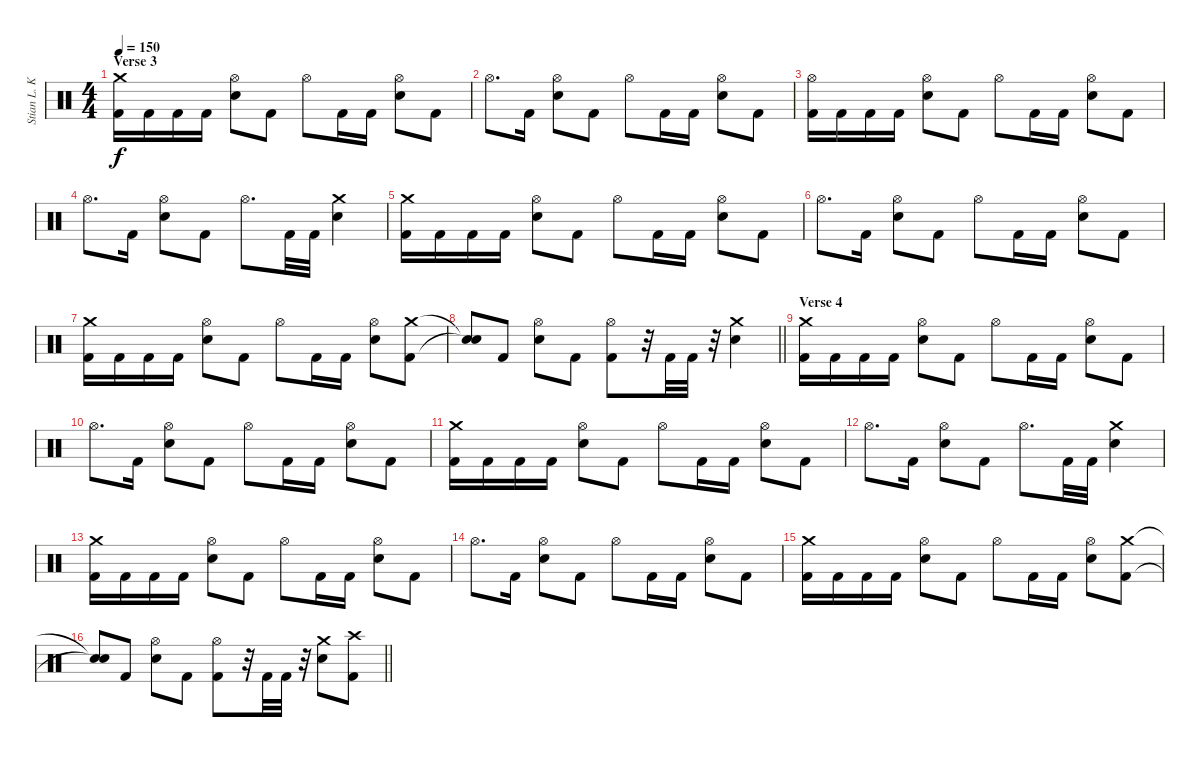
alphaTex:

\track ("Stian L. Kristoffersen" "Stian L. K") {instrument percussion}
\staff {score}
\articulation defaults
\ts (4 4)
\section ("" "Verse 3")
\tempo 150
\clef neutral
\ks c
("Crash medium (hit)" "Kick (hit) 2").16{dy f} "Kick (hit) 2".16 "Kick (hit) 2".16 "Kick (hit) 2".16 ("Hi-Hat (open)" "Electric Snare (hit)").8 "Kick (hit) 2".8 "Hi-Hat (open)".8 "Kick (hit) 2".16 "Kick (hit) 2".16 ("Hi-Hat (open)" "Electric Snare (hit)").8 "Kick (hit) 2".8 |
"Hi-Hat (open)".8{d} "Kick (hit) 2".16 ("Hi-Hat (open)" "Electric Snare (hit)").8 "Kick (hit) 2".8 "Hi-Hat (open)".8 "Kick (hit) 2".16 "Kick (hit) 2".16 ("Hi-Hat (open)" "Electric Snare (hit)").8 "Kick (hit) 2".8 |
("Hi-Hat (open)" "Kick (hit) 2").16 "Kick (hit) 2".16 "Kick (hit) 2".16 "Kick (hit) 2".16 ("Hi-Hat (open)" "Electric Snare (hit)").8 "Kick (hit) 2".8 "Hi-Hat (open)".8 "Kick (hit) 2".16 "Kick (hit) 2".16 ("Hi-Hat (open)" "Electric Snare (hit)").8 "Kick (hit) 2".8 |
"Hi-Hat (open)".8{d} "Kick (hit) 2".16 ("Hi-Hat (open)" "Electric Snare (hit)").8 "Kick (hit) 2".8 "Hi-Hat (open)".8{d} "Kick (hit) 2".32 "Kick (hit) 2".32 ("Crash medium (hit)" "Electric Snare (hit)").4 |
("Crash medium (hit)" "Kick (hit) 2").16 "Kick (hit) 2".16 "Kick (hit) 2".16 "Kick (hit) 2".16 ("Hi-Hat (open)" "Electric Snare (hit)").8 "Kick (hit) 2".8 "Hi-Hat (open)".8 "Kick (hit) 2".16 "Kick (hit) 2".16 ("Hi-Hat (open)" "Electric Snare (hit)").8 "Kick (hit) 2".8 |
"Hi-Hat (open)".8{d} "Kick (hit) 2".16 ("Hi-Hat (open)" "Electric Snare (hit)").8 "Kick (hit) 2".8 "Hi-Hat (open)".8 "Kick (hit) 2".16 "Kick (hit) 2".16 ("Hi-Hat (open)" "Electric Snare (hit)").8 "Kick (hit) 2".8 |
("Crash medium (hit)" "Kick (hit) 2").16 "Kick (hit) 2".16 "Kick (hit) 2".16 "Kick (hit) 2".16 ("Hi-Hat (open)" "Electric Snare (hit)").8 "Kick (hit) 2".8 "Hi-Hat (open)".8 "Kick (hit) 2".16 "Kick (hit) 2".16 ("Hi-Hat (open)" "Electric Snare (hit)").8 ("Crash medium (hit)" "Kick (hit) 2").8 |
\barLineRight lightlight
("Snare (hit)"{t} "Snare (hit)"{t}).8 "Kick (hit) 2".8 ("Hi-Hat (open)" "Electric Snare (hit)").8 "Kick (hit) 2".8 ("Hi-Hat (open)" "Kick (hit) 2").8 r.32 "Kick (hit) 2".32 "Kick (hit) 2".32 r.32 ("Crash medium (hit)" "Electric Snare (hit)").4 |
\section ("" "Verse 4")
("Crash medium (hit)" "Kick (hit) 2").16 "Kick (hit) 2".16 "Kick (hit) 2".16 "Kick (hit) 2".16 ("Hi-Hat (open)" "Electric Snare (hit)").8 "Kick (hit) 2".8 "Hi-Hat (open)".8 "Kick (hit) 2".16 "Kick (hit) 2".16 ("Hi-Hat (open)" "Electric Snare (hit)").8 "Kick (hit) 2".8 |
"Hi-Hat (open)".8{d} "Kick (hit) 2".16 ("Hi-Hat (open)" "Electric Snare (hit)").8 "Kick (hit) 2".8 "Hi-Hat (open)".8 "Kick (hit) 2".16 "Kick (hit) 2".16 ("Hi-Hat (open)" "Electric Snare (hit)").8 "Kick (hit) 2".8 |
("Crash medium (hit)" "Kick (hit) 2").16 "Kick (hit) 2".16 "Kick (hit) 2".16 "Kick (hit) 2".16 ("Hi-Hat (open)" "Electric Snare (hit)").8 "Kick (hit) 2".8 "Hi-Hat (open)".8 "Kick (hit) 2".16 "Kick (hit) 2".16 ("Hi-Hat (open)" "Electric Snare (hit)").8 "Kick (hit) 2".8 |
"Hi-Hat (open)".8{d} "Kick (hit) 2".16 ("Hi-Hat (open)" "Electric Snare (hit)").8 "Kick (hit) 2".8 "Hi-Hat (open)".8{d} "Kick (hit) 2".32 "Kick (hit) 2".32 ("Crash medium (hit)" "Electric Snare (hit)").4 |
("Crash medium (hit)" "Kick (hit) 2").16 "Kick (hit) 2".16 "Kick (hit) 2".16 "Kick (hit) 2".16 ("Hi-Hat (open)" "Electric Snare (hit)").8 "Kick (hit) 2".8 "Hi-Hat (open)".8 "Kick (hit) 2".16 "Kick (hit) 2".16 ("Hi-Hat (open)" "Electric Snare (hit)").8 "Kick (hit) 2".8 |
"Hi-Hat (open)".8{d} "Kick (hit) 2".16 ("Hi-Hat (open)" "Electric Snare (hit)").8 "Kick (hit) 2".8 "Hi-Hat (open)".8 "Kick (hit) 2".16 "Kick (hit) 2".16 ("Hi-Hat (open)" "Electric Snare (hit)").8 "Kick (hit) 2".8 |
("Crash medium (hit)" "Kick (hit) 2").16 "Kick (hit) 2".16 "Kick (hit) 2".16 "Kick (hit) 2".16 ("Hi-Hat (open)" "Electric Snare (hit)").8 "Kick (hit) 2".8 "Hi-Hat (open)".8 "Kick (hit) 2".16 "Kick (hit) 2".16 ("Hi-Hat (open)" "Electric Snare (hit)").8 ("Crash medium (hit)" "Kick (hit) 2").8 |
\barLineRight lightlight
("Snare (hit)"{t} "Snare (hit)"{t}).8 "Kick (hit) 2".8 ("Hi-Hat (open)" "Electric Snare (hit)").8 "Kick (hit) 2".8 ("Hi-Hat (open)" "Kick (hit) 2").8 r.32 "Kick (hit) 2".32 "Kick (hit) 2".32 r.32 ("Crash medium (hit)" "Electric Snare (hit)").8 ("Crash high (hit)" "Kick (hit) 2").8
